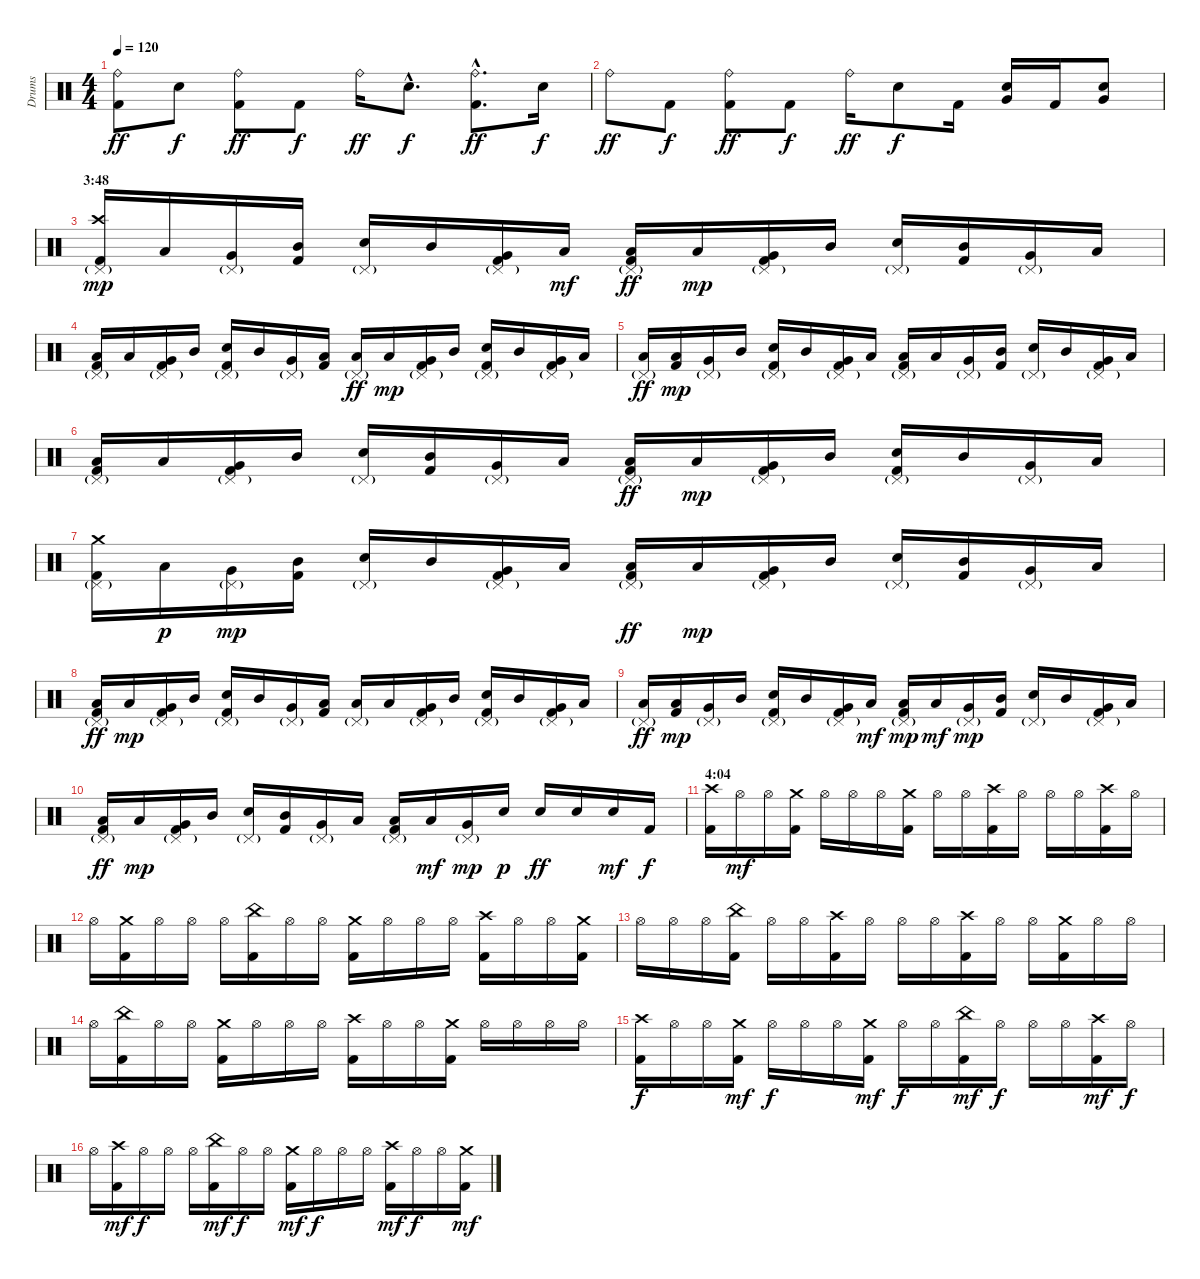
\track ("Drums" "Drums") {instrument percussion}
\staff {score}
\articulation defaults
\ts (4 4)
\tempo 120
\clef neutral
\ks c
("Ride (bell)" "Kick (hit) 2").8{dy ff} "Electric Snare (hit)".8{dy f} ("Ride (bell)" "Kick (hit) 2").8{dy ff} "Kick (hit) 2".8{dy f} "Ride (bell)".16{dy ff} "Electric Snare (hit)"{hac}.8{d dy f} ("Ride (bell)"{hac} "Kick (hit) 2"{hac}).8{d dy ff} "Electric Snare (hit)".16{dy f} |
"Ride (bell)".8{dy ff} "Kick (hit) 2".8{dy f} ("Ride (bell)" "Kick (hit) 2").8{dy ff} "Kick (hit) 2".8{dy f} "Ride (bell)".16{dy ff} "Electric Snare (hit)".8{dy f} "Kick (hit) 2".16 ("Very Low Tom (hit)" "Electric Snare (hit)").16 "Kick (hit) 2".16 ("Very Low Tom (hit)" "Electric Snare (hit)").8 |
\section ("" "3:48")
("Crash high (hit)" "Pedal Hi-Hat (hit)"{g} "Kick (hit) 2").16{dy mp} "Low Tom (hit)".16 ("Very Low Tom (hit)" "Pedal Hi-Hat (hit)"{g}).16 ("Mid Tom (hit)" "Kick (hit) 2").16 ("Pedal Hi-Hat (hit)"{g} "Electric Snare (hit)").16 "Mid Tom (hit)".16 ("Very Low Tom (hit)" "Pedal Hi-Hat (hit)"{g} "Kick (hit) 2").16 "Low Tom (hit)".16{dy mf} ("Pedal Hi-Hat (hit)"{g} "Low Floor Tom (hit)" "Kick (hit) 2").16{dy ff} "Low Tom (hit)".16{dy mp} ("Very Low Tom (hit)" "Pedal Hi-Hat (hit)"{g} "Kick (hit) 2").16 "Mid Tom (hit)".16 ("Pedal Hi-Hat (hit)"{g} "Electric Snare (hit)").16 ("Mid Tom (hit)" "Kick (hit) 2").16 ("Very Low Tom (hit)" "Pedal Hi-Hat (hit)"{g}).16 "Low Tom (hit)".16 |
("Pedal Hi-Hat (hit)"{g} "Low Floor Tom (hit)" "Kick (hit) 2").16 "Low Tom (hit)".16 ("Very Low Tom (hit)" "Pedal Hi-Hat (hit)"{g} "Kick (hit) 2").16 "Mid Tom (hit)".16 ("Pedal Hi-Hat (hit)"{g} "Electric Snare (hit)" "Kick (hit) 2").16 "Mid Tom (hit)".16 ("Very Low Tom (hit)" "Pedal Hi-Hat (hit)"{g}).16 ("Low Tom (hit)" "Kick (hit) 2").16 ("Pedal Hi-Hat (hit)"{g} "Low Floor Tom (hit)").16{dy ff} "Low Tom (hit)".16{dy mp} ("Very Low Tom (hit)" "Pedal Hi-Hat (hit)"{g} "Kick (hit) 2").16 "Mid Tom (hit)".16 ("Pedal Hi-Hat (hit)"{g} "Electric Snare (hit)" "Kick (hit) 2").16 "Mid Tom (hit)".16 ("Very Low Tom (hit)" "Pedal Hi-Hat (hit)"{g} "Kick (hit) 2").16 "Low Tom (hit)".16 |
("Pedal Hi-Hat (hit)"{g} "Low Floor Tom (hit)").16{dy ff} ("Low Tom (hit)" "Kick (hit) 2").16{dy mp} ("Very Low Tom (hit)" "Pedal Hi-Hat (hit)"{g}).16 "Mid Tom (hit)".16 ("Pedal Hi-Hat (hit)"{g} "Electric Snare (hit)" "Kick (hit) 2").16 "Mid Tom (hit)".16 ("Very Low Tom (hit)" "Pedal Hi-Hat (hit)"{g} "Kick (hit) 2").16 "Low Tom (hit)".16 ("Pedal Hi-Hat (hit)"{g} "Low Floor Tom (hit)" "Kick (hit) 2").16 "Low Tom (hit)".16 ("Very Low Tom (hit)" "Pedal Hi-Hat (hit)"{g}).16 ("Mid Tom (hit)" "Kick (hit) 2").16 ("Pedal Hi-Hat (hit)"{g} "Electric Snare (hit)").16 "Mid Tom (hit)".16 ("Very Low Tom (hit)" "Pedal Hi-Hat (hit)"{g} "Kick (hit) 2").16 "Low Tom (hit)".16 |
("Pedal Hi-Hat (hit)"{g} "Low Floor Tom (hit)" "Kick (hit) 2").16 "Low Tom (hit)".16 ("Very Low Tom (hit)" "Pedal Hi-Hat (hit)"{g} "Kick (hit) 2").16 "Mid Tom (hit)".16 ("Pedal Hi-Hat (hit)"{g} "Electric Snare (hit)").16 ("Mid Tom (hit)" "Kick (hit) 2").16 ("Very Low Tom (hit)" "Pedal Hi-Hat (hit)"{g}).16 "Low Tom (hit)".16 ("Pedal Hi-Hat (hit)"{g} "Low Floor Tom (hit)" "Kick (hit) 2").16{dy ff} "Low Tom (hit)".16{dy mp} ("Very Low Tom (hit)" "Pedal Hi-Hat (hit)"{g} "Kick (hit) 2").16 "Mid Tom (hit)".16 ("Pedal Hi-Hat (hit)"{g} "Electric Snare (hit)" "Kick (hit) 2").16 "Mid Tom (hit)".16 ("Very Low Tom (hit)" "Pedal Hi-Hat (hit)"{g}).16 "Low Tom (hit)".16 |
("Crash medium (hit)" "Pedal Hi-Hat (hit)"{g} "Kick (hit) 2").16 "Low Tom (hit)".16{dy p} ("Very Low Tom (hit)" "Pedal Hi-Hat (hit)"{g}).16{dy mp} ("Mid Tom (hit)" "Kick (hit) 2").16 ("Pedal Hi-Hat (hit)"{g} "Electric Snare (hit)").16 "Mid Tom (hit)".16 ("Very Low Tom (hit)" "Pedal Hi-Hat (hit)"{g} "Kick (hit) 2").16 "Low Tom (hit)".16 ("Pedal Hi-Hat (hit)"{g} "Low Floor Tom (hit)" "Kick (hit) 2").16{dy ff} "Low Tom (hit)".16{dy mp} ("Very Low Tom (hit)" "Pedal Hi-Hat (hit)"{g} "Kick (hit) 2").16 "Mid Tom (hit)".16 ("Pedal Hi-Hat (hit)"{g} "Electric Snare (hit)").16 ("Mid Tom (hit)" "Kick (hit) 2").16 ("Very Low Tom (hit)" "Pedal Hi-Hat (hit)"{g}).16 "Low Tom (hit)".16 |
("Pedal Hi-Hat (hit)"{g} "Low Floor Tom (hit)" "Kick (hit) 2").16{dy ff} "Low Tom (hit)".16{dy mp} ("Very Low Tom (hit)" "Pedal Hi-Hat (hit)"{g} "Kick (hit) 2").16 "Mid Tom (hit)".16 ("Pedal Hi-Hat (hit)"{g} "Electric Snare (hit)" "Kick (hit) 2").16 "Mid Tom (hit)".16 ("Very Low Tom (hit)" "Pedal Hi-Hat (hit)"{g}).16 ("Low Tom (hit)" "Kick (hit) 2").16 ("Pedal Hi-Hat (hit)"{g} "Low Floor Tom (hit)").16 "Low Tom (hit)".16 ("Very Low Tom (hit)" "Pedal Hi-Hat (hit)"{g} "Kick (hit) 2").16 "Mid Tom (hit)".16 ("Pedal Hi-Hat (hit)"{g} "Electric Snare (hit)" "Kick (hit) 2").16 "Mid Tom (hit)".16 ("Very Low Tom (hit)" "Pedal Hi-Hat (hit)"{g} "Kick (hit) 2").16 "Low Tom (hit)".16 |
("Pedal Hi-Hat (hit)"{g} "Low Floor Tom (hit)").16{dy ff} ("Low Tom (hit)" "Kick (hit) 2").16{dy mp} ("Very Low Tom (hit)" "Pedal Hi-Hat (hit)"{g}).16 "Mid Tom (hit)".16 ("Pedal Hi-Hat (hit)"{g} "Electric Snare (hit)" "Kick (hit) 2").16 "Mid Tom (hit)".16 ("Very Low Tom (hit)" "Pedal Hi-Hat (hit)"{g} "Kick (hit) 2").16 "Low Tom (hit)".16{dy mf} ("Pedal Hi-Hat (hit)"{g} "Low Floor Tom (hit)" "Kick (hit) 2").16{dy mp} "Low Tom (hit)".16{dy mf} ("Very Low Tom (hit)" "Pedal Hi-Hat (hit)"{g}).16{dy mp} ("Mid Tom (hit)" "Kick (hit) 2").16 ("Pedal Hi-Hat (hit)"{g} "Electric Snare (hit)").16 "Mid Tom (hit)".16 ("Very Low Tom (hit)" "Pedal Hi-Hat (hit)"{g} "Kick (hit) 2").16 "Low Tom (hit)".16 |
("Pedal Hi-Hat (hit)"{g} "Low Floor Tom (hit)" "Kick (hit) 2").16{dy ff} "Low Tom (hit)".16{dy mp} ("Very Low Tom (hit)" "Pedal Hi-Hat (hit)"{g} "Kick (hit) 2").16 "Mid Tom (hit)".16 ("Pedal Hi-Hat (hit)"{g} "Electric Snare (hit)").16 ("Mid Tom (hit)" "Kick (hit) 2").16 ("Very Low Tom (hit)" "Pedal Hi-Hat (hit)"{g}).16 "Low Tom (hit)".16 ("Pedal Hi-Hat (hit)"{g} "Low Floor Tom (hit)" "Kick (hit) 2").16 "Low Tom (hit)".16{dy mf} ("Very Low Tom (hit)" "Pedal Hi-Hat (hit)"{g}).16{dy mp} "Electric Snare (hit)".16{dy p} "Electric Snare (hit)".16{dy ff} "Electric Snare (hit)".16 "Electric Snare (hit)".16{dy mf} "Kick (hit) 2".16{dy f} |
\section ("" "4:04")
("Crash high (hit)" "Kick (hit) 2").16 "Hi-Hat (open)".16{dy mf} "Hi-Hat (open)".16 ("Crash medium (hit)" "Kick (hit) 2").16 "Hi-Hat (open)".16 "Hi-Hat (open)".16 "Hi-Hat (open)".16 ("Crash medium (hit)" "Kick (hit) 2").16 "Hi-Hat (open)".16 "Hi-Hat (open)".16 ("Crash high (hit)" "Kick (hit) 2").16 "Hi-Hat (open)".16 "Hi-Hat (open)".16 "Hi-Hat (open)".16 ("Crash high (hit)" "Kick (hit) 2").16 "Hi-Hat (open)".16 |
"Hi-Hat (open)".16 ("Crash medium (hit)" "Kick (hit) 2").16 "Hi-Hat (open)".16 "Hi-Hat (open)".16 "Hi-Hat (open)".16 ("China (hit)" "Kick (hit) 2").16 "Hi-Hat (open)".16 "Hi-Hat (open)".16 ("Crash medium (hit)" "Kick (hit) 2").16 "Hi-Hat (open)".16 "Hi-Hat (open)".16 "Hi-Hat (open)".16 ("Crash high (hit)" "Kick (hit) 2").16 "Hi-Hat (open)".16 "Hi-Hat (open)".16 ("Crash medium (hit)" "Kick (hit) 2").16 |
"Hi-Hat (open)".16 "Hi-Hat (open)".16 "Hi-Hat (open)".16 ("China (hit)" "Kick (hit) 2").16 "Hi-Hat (open)".16 "Hi-Hat (open)".16 ("Crash high (hit)" "Kick (hit) 2").16 "Hi-Hat (open)".16 "Hi-Hat (open)".16 "Hi-Hat (open)".16 ("Crash high (hit)" "Kick (hit) 2").16 "Hi-Hat (open)".16 "Hi-Hat (open)".16 ("Crash medium (hit)" "Kick (hit) 2").16 "Hi-Hat (open)".16 "Hi-Hat (open)".16 |
"Hi-Hat (open)".16 ("China (hit)" "Kick (hit) 2").16 "Hi-Hat (open)".16 "Hi-Hat (open)".16 ("Crash medium (hit)" "Kick (hit) 2").16 "Hi-Hat (open)".16 "Hi-Hat (open)".16 "Hi-Hat (open)".16 ("Crash high (hit)" "Kick (hit) 2").16 "Hi-Hat (open)".16 "Hi-Hat (open)".16 ("Crash medium (hit)" "Kick (hit) 2").16 "Hi-Hat (open)".16 "Hi-Hat (open)".16 "Hi-Hat (open)".16 "Hi-Hat (open)".16 |
("Crash high (hit)" "Kick (hit) 2").16{dy f} "Hi-Hat (open)".16 "Hi-Hat (open)".16 ("Crash medium (hit)" "Kick (hit) 2").16{dy mf} "Hi-Hat (open)".16{dy f} "Hi-Hat (open)".16 "Hi-Hat (open)".16 ("Crash medium (hit)" "Kick (hit) 2").16{dy mf} "Hi-Hat (open)".16{dy f} "Hi-Hat (open)".16 ("China (hit)" "Kick (hit) 2").16{dy mf} "Hi-Hat (open)".16{dy f} "Hi-Hat (open)".16 "Hi-Hat (open)".16 ("Crash high (hit)" "Kick (hit) 2").16{dy mf} "Hi-Hat (open)".16{dy f} |
"Hi-Hat (open)".16 ("Crash high (hit)" "Kick (hit) 2").16{dy mf} "Hi-Hat (open)".16{dy f} "Hi-Hat (open)".16 "Hi-Hat (open)".16 ("China (hit)" "Kick (hit) 2").16{dy mf} "Hi-Hat (open)".16{dy f} "Hi-Hat (open)".16 ("Crash medium (hit)" "Kick (hit) 2").16{dy mf} "Hi-Hat (open)".16{dy f} "Hi-Hat (open)".16 "Hi-Hat (open)".16 ("Crash high (hit)" "Kick (hit) 2").16{dy mf} "Hi-Hat (open)".16{dy f} "Hi-Hat (open)".16 ("Crash medium (hit)" "Kick (hit) 2").16{dy mf}
